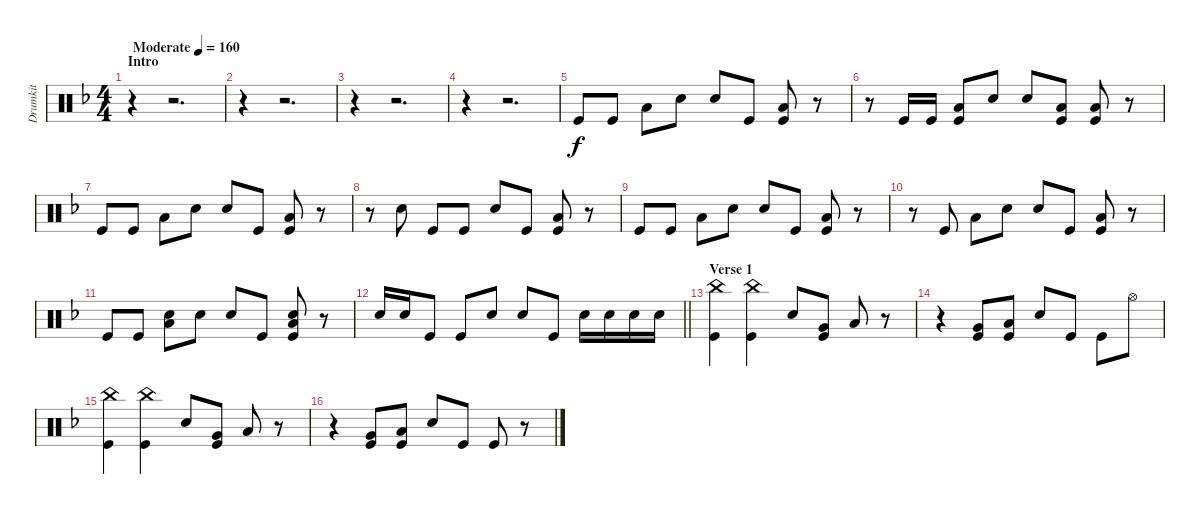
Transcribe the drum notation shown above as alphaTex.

\track ("Drumkit" "Drumkit") {instrument percussion}
\staff {score}
\articulation defaults
\ts (4 4)
\section ("" "Intro")
\tempo (160 "Moderate")
\clef neutral
\ks dminor
r.4{dy f} r.2{d} |
r.4 r.2{d} |
r.4 r.2{d} |
r.4 r.2{d} |
"Kick (hit)".8 "Kick (hit)".8 "Low Floor Tom (hit)".8 "Snare (hit) 2".8 "Snare (hit) 2".8 "Kick (hit)".8 ("Low Floor Tom (hit)" "Kick (hit)").8 r.8 |
r.8 "Kick (hit)".16 "Kick (hit)".16 ("Low Floor Tom (hit)" "Kick (hit)").8 "Snare (hit) 2".8 "Snare (hit) 2".8 ("Low Floor Tom (hit)" "Kick (hit)").8 ("Low Floor Tom (hit)" "Kick (hit)").8 r.8 |
"Kick (hit)".8 "Kick (hit)".8 "Low Floor Tom (hit)".8 "Snare (hit) 2".8 "Snare (hit) 2".8 "Kick (hit)".8 ("Low Floor Tom (hit)" "Kick (hit)").8 r.8 |
r.8 "Snare (hit) 2".8 "Kick (hit)".8 "Kick (hit)".8 "Snare (hit) 2".8 "Kick (hit)".8 ("Low Floor Tom (hit)" "Kick (hit)").8 r.8 |
"Kick (hit)".8 "Kick (hit)".8 "Low Floor Tom (hit)".8 "Snare (hit) 2".8 "Snare (hit) 2".8 "Kick (hit)".8 ("Low Floor Tom (hit)" "Kick (hit)").8 r.8 |
r.8 "Kick (hit)".8 "Low Floor Tom (hit)".8 "Snare (hit) 2".8 "Snare (hit) 2".8 "Kick (hit)".8 ("Low Floor Tom (hit)" "Kick (hit)").8 r.8 |
"Kick (hit)".8 "Kick (hit)".8 ("Snare (hit) 2" "Low Floor Tom (hit)").8 "Snare (hit) 2".8 "Snare (hit) 2".8 "Kick (hit)".8 ("Snare (hit) 2" "Low Floor Tom (hit)" "Kick (hit)").8 r.8 |
\barLineRight lightlight "Snare (hit) 2".16 "Snare (hit) 2".16 "Kick (hit)".8 "Kick (hit)".8 "Snare (hit) 2".8 "Snare (hit) 2".8 "Kick (hit)".8 "Snare (hit) 2".16 "Snare (hit) 2".16 "Snare (hit) 2".16 "Snare (hit) 2".16
|
\section ("" "Verse 1")
("China (hit)" "Kick (hit)").4 ("China (hit)" "Kick (hit)").4 "Snare (hit) 2".8 ("Very Low Tom (hit)" "Kick (hit)").8 "Low Tom (hit)".8 r.8 |
r.4 ("Very Low Tom (hit)" "Kick (hit)").8 ("Low Floor Tom (hit)" "Kick (hit)").8 "Snare (hit) 2".8 "Kick (hit)".8 "Kick (hit)".8 "Hi-Hat (open)".8 |
("China (hit)" "Kick (hit)").4 ("China (hit)" "Kick (hit)").4 "Snare (hit) 2".8 ("Very Low Tom (hit)" "Kick (hit)").8 "Low Tom (hit)".8 r.8 |
r.4 ("Very Low Tom (hit)" "Kick (hit)").8 ("Low Floor Tom (hit)" "Kick (hit)").8 "Snare (hit) 2".8 "Kick (hit)".8 "Kick (hit)".8 r.8
